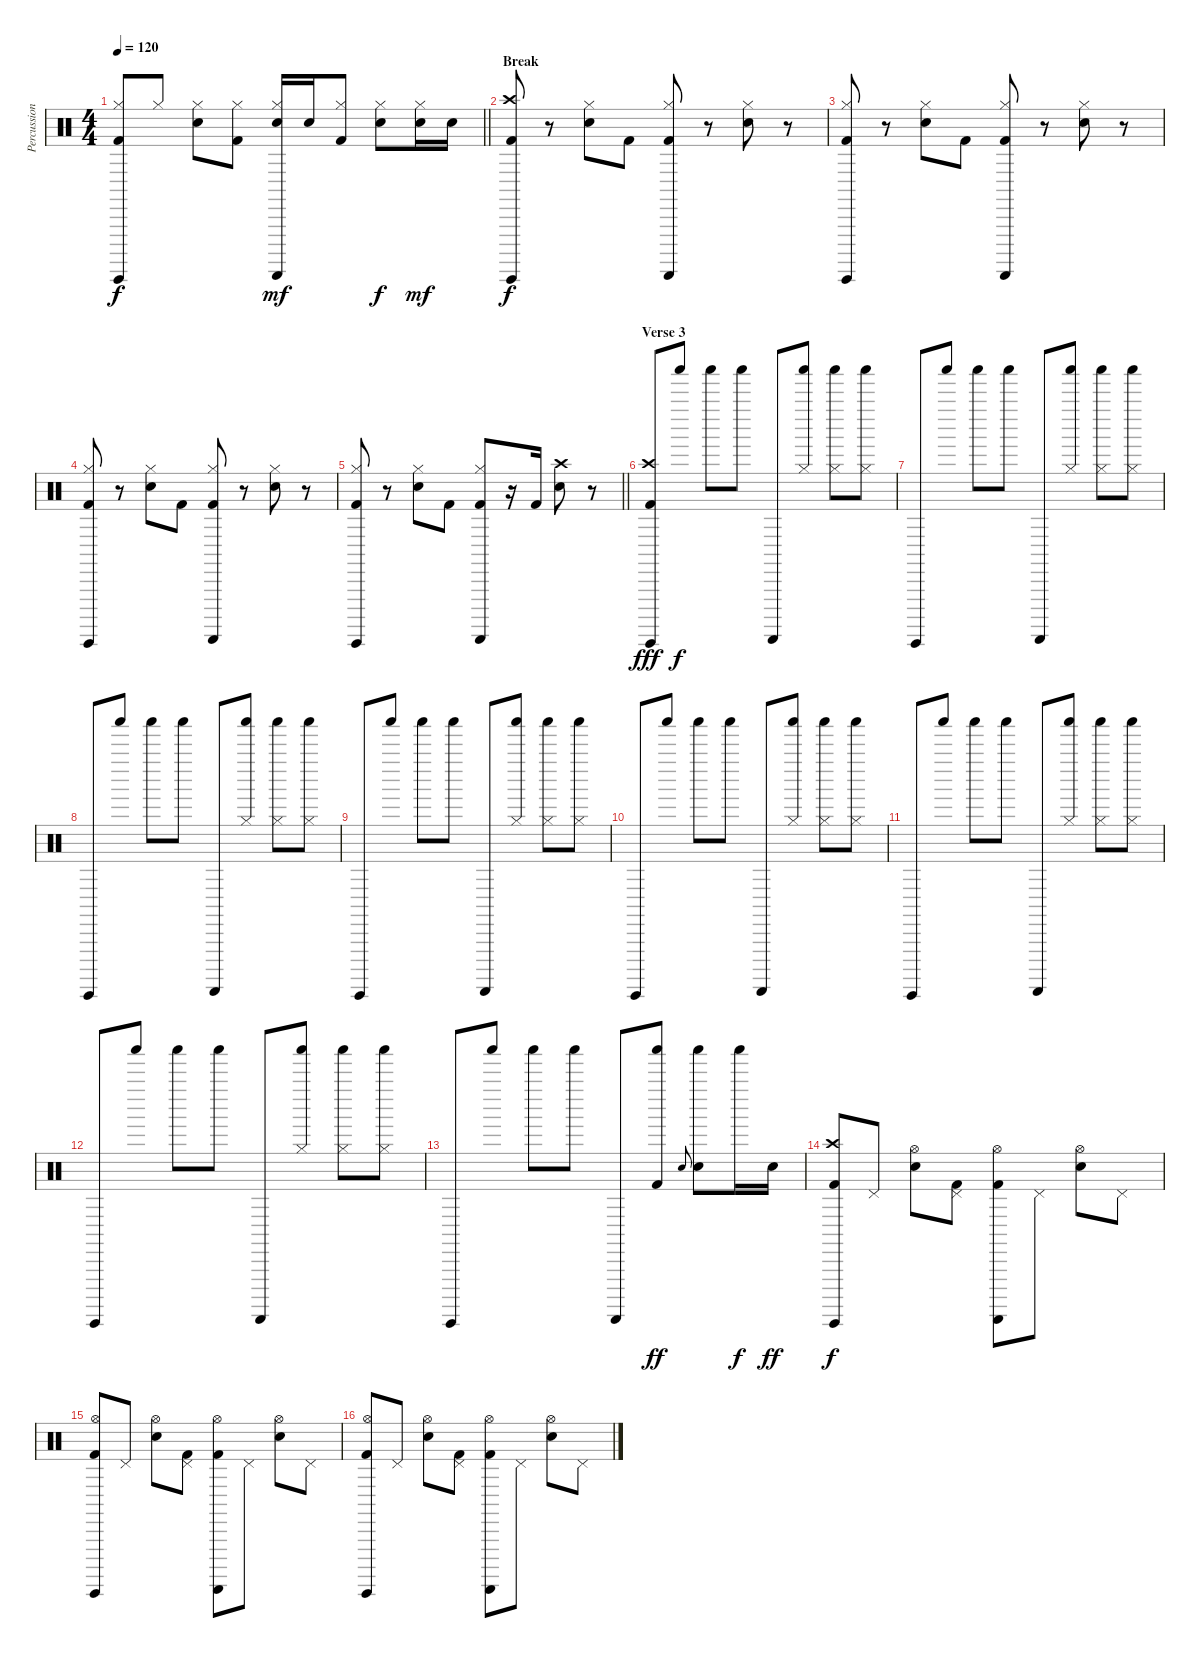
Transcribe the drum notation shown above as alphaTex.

\track ("Percussion" "Percussion") {instrument percussion}
\staff {score}
\articulation defaults
\ts (4 4)
\tempo 120
\clef neutral
\barLineRight lightlight
\ks c
("Guiro (hit)" "Hi-Hat (closed)" "Kick (hit) 2").8{dy f} "Hi-Hat (closed)".8 ("Hi-Hat (closed)" "Electric Snare (hit)").8 ("Hi-Hat (closed)" "Kick (hit) 2").8 ("Guiro (scrap-return)" "Hi-Hat (closed)" "Electric Snare (hit)").16{dy mf} "Electric Snare (hit)".16 ("Hi-Hat (closed)" "Kick (hit) 2").8 ("Hi-Hat (closed)" "Electric Snare (hit)").8{dy f} ("Hi-Hat (closed)" "Electric Snare (hit)").16{dy mf} "Electric Snare (hit)".16 |
\section ("" "Break")
("Guiro (hit)" "Crash high (hit)" "Kick (hit) 2").8{dy f} r.8 ("Hi-Hat (closed)" "Electric Snare (hit)").8 "Kick (hit) 2".8 ("Guiro (scrap-return)" "Hi-Hat (closed)" "Kick (hit) 2").8 r.8 ("Hi-Hat (closed)" "Electric Snare (hit)").8 r.8 |
("Guiro (hit)" "Hi-Hat (closed)" "Kick (hit) 2").8 r.8 ("Hi-Hat (closed)" "Electric Snare (hit)").8 "Kick (hit) 2".8 ("Guiro (scrap-return)" "Hi-Hat (closed)" "Kick (hit) 2").8 r.8 ("Hi-Hat (closed)" "Electric Snare (hit)").8 r.8 |
("Guiro (hit)" "Hi-Hat (closed)" "Kick (hit) 2").8 r.8 ("Hi-Hat (closed)" "Electric Snare (hit)").8 "Kick (hit) 2".8 ("Guiro (scrap-return)" "Hi-Hat (closed)" "Kick (hit) 2").8 r.8 ("Hi-Hat (closed)" "Electric Snare (hit)").8 r.8 |
\barLineRight lightlight
("Guiro (hit)" "Hi-Hat (closed)" "Kick (hit) 2").8 r.8 ("Hi-Hat (closed)" "Electric Snare (hit)").8 "Kick (hit) 2".8 ("Guiro (scrap-return)" "Hi-Hat (closed)" "Kick (hit) 2").8 r.16 "Kick (hit) 2".16 ("Crash high (hit)" "Electric Snare (hit)").8 r.8 |
\section ("" "Verse 3")
("Guiro (hit)" "Crash high (hit)" "Kick (hit) 2").8{dy fff} "Shaker (hit)".8{dy f} "Shaker (hit)".8 "Shaker (hit)".8 "Guiro (scrap-return)".8 ("Shaker (hit)" "Hi-Hat (closed)").8 ("Shaker (hit)" "Hi-Hat (closed)").8 ("Shaker (hit)" "Hi-Hat (closed)").8 |
"Guiro (hit)".8 "Shaker (hit)".8 "Shaker (hit)".8 "Shaker (hit)".8 "Guiro (scrap-return)".8 ("Shaker (hit)" "Hi-Hat (closed)").8 ("Shaker (hit)" "Hi-Hat (closed)").8 ("Shaker (hit)" "Hi-Hat (closed)").8 |
"Guiro (hit)".8 "Shaker (hit)".8 "Shaker (hit)".8 "Shaker (hit)".8 "Guiro (scrap-return)".8 ("Shaker (hit)" "Hi-Hat (closed)").8 ("Shaker (hit)" "Hi-Hat (closed)").8 ("Shaker (hit)" "Hi-Hat (closed)").8 |
"Guiro (hit)".8 "Shaker (hit)".8 "Shaker (hit)".8 "Shaker (hit)".8 "Guiro (scrap-return)".8 ("Shaker (hit)" "Hi-Hat (closed)").8 ("Shaker (hit)" "Hi-Hat (closed)").8 ("Shaker (hit)" "Hi-Hat (closed)").8 |
"Guiro (hit)".8 "Shaker (hit)".8 "Shaker (hit)".8 "Shaker (hit)".8 "Guiro (scrap-return)".8 ("Shaker (hit)" "Hi-Hat (closed)").8 ("Shaker (hit)" "Hi-Hat (closed)").8 ("Shaker (hit)" "Hi-Hat (closed)").8 |
"Guiro (hit)".8 "Shaker (hit)".8 "Shaker (hit)".8 "Shaker (hit)".8 "Guiro (scrap-return)".8 ("Shaker (hit)" "Hi-Hat (closed)").8 ("Shaker (hit)" "Hi-Hat (closed)").8 ("Shaker (hit)" "Hi-Hat (closed)").8 |
"Guiro (hit)".8 "Shaker (hit)".8 "Shaker (hit)".8 "Shaker (hit)".8 "Guiro (scrap-return)".8 ("Shaker (hit)" "Hi-Hat (closed)").8 ("Shaker (hit)" "Hi-Hat (closed)").8 ("Shaker (hit)" "Hi-Hat (closed)").8 |
"Guiro (hit)".8 "Shaker (hit)".8 "Shaker (hit)".8 "Shaker (hit)".8 "Guiro (scrap-return)".8 ("Shaker (hit)" "Kick (hit) 2").8{dy ff} "Electric Snare (hit)".8{gr onbeat} ("Shaker (hit)" "Electric Snare (hit)").8 "Shaker (hit)".16{dy f} "Electric Snare (hit)".16{dy ff} |
("Guiro (hit)" "Crash high (hit)" "Kick (hit) 2").8{dy f} "Pedal Hi-Hat (hit)".8 ("Hi-Hat (open)" "Electric Snare (hit)").8 ("Pedal Hi-Hat (hit)" "Kick (hit) 2").8 ("Guiro (scrap-return)" "Hi-Hat (open)" "Kick (hit) 2").8 "Pedal Hi-Hat (hit)".8 ("Hi-Hat (open)" "Electric Snare (hit)").8 "Pedal Hi-Hat (hit)".8 |
("Guiro (hit)" "Hi-Hat (open)" "Kick (hit) 2").8 "Pedal Hi-Hat (hit)".8 ("Hi-Hat (open)" "Electric Snare (hit)").8 ("Pedal Hi-Hat (hit)" "Kick (hit) 2").8 ("Guiro (scrap-return)" "Hi-Hat (open)" "Kick (hit) 2").8 "Pedal Hi-Hat (hit)".8 ("Hi-Hat (open)" "Electric Snare (hit)").8 "Pedal Hi-Hat (hit)".8 |
("Guiro (hit)" "Hi-Hat (open)" "Kick (hit) 2").8 "Pedal Hi-Hat (hit)".8 ("Hi-Hat (open)" "Electric Snare (hit)").8 ("Pedal Hi-Hat (hit)" "Kick (hit) 2").8 ("Guiro (scrap-return)" "Hi-Hat (open)" "Kick (hit) 2").8 "Pedal Hi-Hat (hit)".8 ("Hi-Hat (open)" "Electric Snare (hit)").8 "Pedal Hi-Hat (hit)".8
